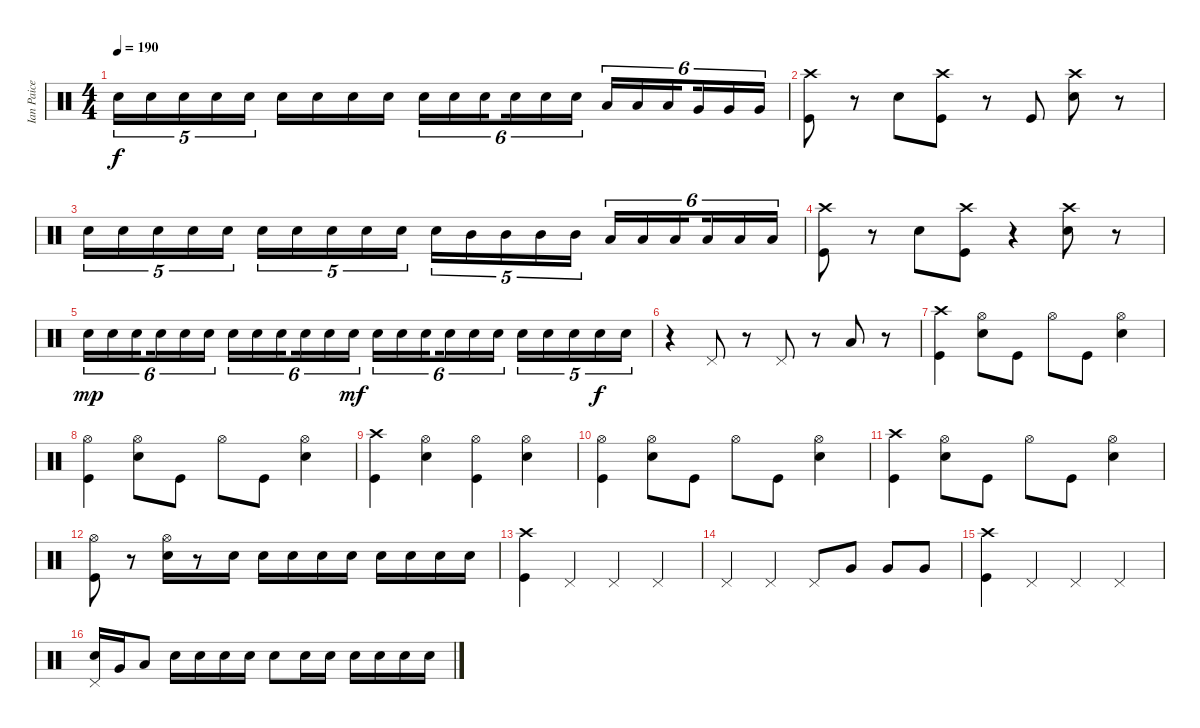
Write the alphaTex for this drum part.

\track ("Ian Paice" "Ian Paice") {instrument percussion}
\staff {score}
\articulation defaults
\ts (4 4)
\tempo 190
\clef neutral
\ks c "Snare (hit) 2".16{tu (5 4) dy f} "Snare (hit) 2".16{tu (5 4)} "Snare (hit) 2".16{tu (5 4)} "Snare (hit) 2".16{tu (5 4)} "Snare (hit) 2".16{tu (5 4)} "Snare (hit) 2".16 "Snare (hit) 2".16 "Snare (hit) 2".16 "Snare (hit) 2".16 "Snare (hit) 2".16{tu (6 4)} "Snare (hit) 2".16{tu (6 4)} "Snare (hit) 2".16{tu (6 4) beam splitsecondary} "Snare (hit) 2".16{tu (6 4)} "Snare (hit) 2".16{tu (6 4)} "Snare (hit) 2".16{tu (6 4)} "Low Tom (hit)".16{tu (6 4)} "Low Tom (hit)".16{tu (6 4)} "Low Tom (hit)".16{tu (6 4) beam splitsecondary} "Very Low Tom (hit)".16{tu (6 4)} "Very Low Tom (hit)".16{tu (6 4)} "Very Low Tom (hit)".16{tu (6 4)}
|
("Crash high (hit)" "Kick (hit)").8 r.8 "Snare (hit) 2".8 ("Crash high (hit)" "Kick (hit)").8 r.8 "Kick (hit)".8 ("Snare (hit) 2" "Crash high (hit)").8 r.8 |
"Snare (hit) 2".16{tu (5 4)} "Snare (hit) 2".16{tu (5 4)} "Snare (hit) 2".16{tu (5 4)} "Snare (hit) 2".16{tu (5 4)} "Snare (hit) 2".16{tu (5 4)} "Snare (hit) 2".16{tu (5 4)} "Snare (hit) 2".16{tu (5 4)} "Snare (hit) 2".16{tu (5 4)} "Snare (hit) 2".16{tu (5 4)} "Snare (hit) 2".16{tu (5 4)} "Snare (hit) 2".16{tu (5 4)} "Mid Tom (hit)".16{tu (5 4)} "Mid Tom (hit)".16{tu (5 4)} "Mid Tom (hit)".16{tu (5 4)} "Mid Tom (hit)".16{tu (5 4)} "Low Tom (hit)".16{tu (6 4)} "Low Tom (hit)".16{tu (6 4)} "Low Tom (hit)".16{tu (6 4) beam splitsecondary} "Low Tom (hit)".16{tu (6 4)} "Low Tom (hit)".16{tu (6 4)} "Low Tom (hit)".16{tu (6 4)} |
("Crash high (hit)" "Kick (hit)").8 r.8 "Snare (hit) 2".8 ("Kick (hit)" "Crash high (hit)").8 r.4 ("Snare (hit) 2" "Crash high (hit)").8 r.8 |
"Snare (hit) 2".16{tu (6 4) dy mp} "Snare (hit) 2".16{tu (6 4)} "Snare (hit) 2".16{tu (6 4) beam splitsecondary} "Snare (hit) 2".16{tu (6 4)} "Snare (hit) 2".16{tu (6 4)} "Snare (hit) 2".16{tu (6 4)} "Snare (hit) 2".16{tu (6 4)} "Snare (hit) 2".16{tu (6 4)} "Snare (hit) 2".16{tu (6 4) beam splitsecondary} "Snare (hit) 2".16{tu (6 4)} "Snare (hit) 2".16{tu (6 4)} "Snare (hit) 2".16{tu (6 4) dy mf} "Snare (hit) 2".16{tu (6 4)} "Snare (hit) 2".16{tu (6 4)} "Snare (hit) 2".16{tu (6 4) beam splitsecondary} "Snare (hit) 2".16{tu (6 4)} "Snare (hit) 2".16{tu (6 4)} "Snare (hit) 2".16{tu (6 4)} "Snare (hit) 2".16{tu (5 4)} "Snare (hit) 2".16{tu (5 4)} "Snare (hit) 2".16{tu (5 4)} "Snare (hit) 2".16{tu (5 4) dy f} "Snare (hit) 2".16{tu (5 4)} |
r.4 "Pedal Hi-Hat (hit)".8 r.8 "Pedal Hi-Hat (hit)".8 r.8 "Low Tom (hit)".8 r.8 |
("Crash high (hit)" "Kick (hit)").4 ("Snare (hit) 2" "Hi-Hat (open)").8 "Kick (hit)".8 "Hi-Hat (open)".8 "Kick (hit)".8 ("Snare (hit) 2" "Hi-Hat (open)").4 |
("Kick (hit)" "Hi-Hat (open)").4 ("Hi-Hat (open)" "Snare (hit) 2").8 "Kick (hit)".8 "Hi-Hat (open)".8 "Kick (hit)".8 ("Hi-Hat (open)" "Snare (hit) 2").4 |
("Kick (hit)" "Crash high (hit)").4 ("Snare (hit) 2" "Hi-Hat (open)").4 ("Hi-Hat (open)" "Kick (hit)").4 ("Snare (hit) 2" "Hi-Hat (open)").4 |
("Hi-Hat (open)" "Kick (hit)").4 ("Hi-Hat (open)" "Snare (hit) 2").8 "Kick (hit)".8 "Hi-Hat (open)".8 "Kick (hit)".8 ("Snare (hit) 2" "Hi-Hat (open)").4 |
("Kick (hit)" "Crash high (hit)").4 ("Snare (hit) 2" "Hi-Hat (open)").8 "Kick (hit)".8 "Hi-Hat (open)".8 "Kick (hit)".8 ("Snare (hit) 2" "Hi-Hat (open)").4 |
("Kick (hit)" "Hi-Hat (open)").8 r.8 ("Snare (hit) 2" "Hi-Hat (open)").16 r.8 "Snare (hit) 2".16 "Snare (hit) 2".16 "Snare (hit) 2".16 "Snare (hit) 2".16 "Snare (hit) 2".16 "Snare (hit) 2".16 "Snare (hit) 2".16 "Snare (hit) 2".16 "Snare (hit) 2".16 |
("Kick (hit)" "Crash high (hit)").4 "Pedal Hi-Hat (hit)".4 "Pedal Hi-Hat (hit)".4 "Pedal Hi-Hat (hit)".4 |
"Pedal Hi-Hat (hit)".4 "Pedal Hi-Hat (hit)".4 "Pedal Hi-Hat (hit)".8 "Very Low Tom (hit)".8 "Very Low Tom (hit)".8 "Very Low Tom (hit)".8 |
("Kick (hit)" "Crash high (hit)").4 "Pedal Hi-Hat (hit)".4 "Pedal Hi-Hat (hit)".4 "Pedal Hi-Hat (hit)".4 |
("Snare (hit) 2" "Pedal Hi-Hat (hit)").16 "Very Low Tom (hit)".16 "Low Floor Tom (hit)".8 "Snare (hit) 2".16 "Snare (hit) 2".16 "Snare (hit) 2".16 "Snare (hit) 2".16 "Snare (hit) 2".8 "Snare (hit) 2".16 "Snare (hit) 2".16 "Snare (hit) 2".16 "Snare (hit) 2".16 "Snare (hit) 2".16 "Snare (hit) 2".16
